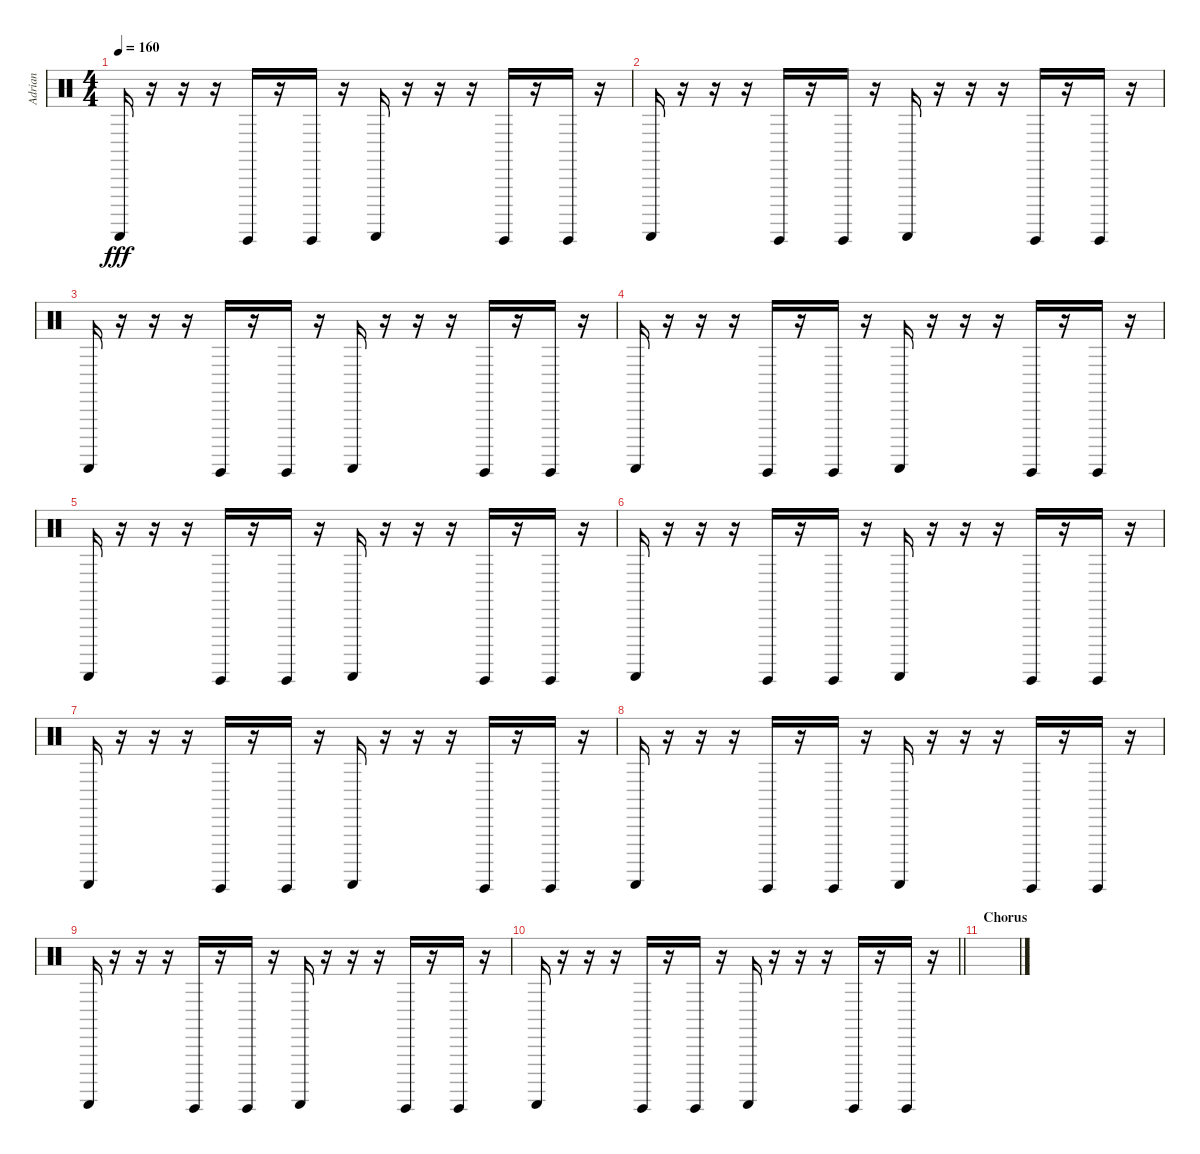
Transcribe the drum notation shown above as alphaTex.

\track ("Adrian" "Adrian") {instrument percussion}
\staff {score}
\articulation defaults
\ts (4 4)
\tempo 160
\clef neutral
\ks c "Guiro (scrap-return)".16{dy fff}
r.16 r.16 r.16 "Guiro (hit)".16 r.16 "Guiro (hit)".16 r.16 "Guiro (scrap-return)".16 r.16 r.16 r.16 "Guiro (hit)".16 r.16 "Guiro (hit)".16 r.16 |
"Guiro (scrap-return)".16 r.16 r.16 r.16 "Guiro (hit)".16 r.16 "Guiro (hit)".16 r.16 "Guiro (scrap-return)".16 r.16 r.16 r.16 "Guiro (hit)".16 r.16 "Guiro (hit)".16 r.16 |
"Guiro (scrap-return)".16 r.16 r.16 r.16 "Guiro (hit)".16 r.16 "Guiro (hit)".16 r.16 "Guiro (scrap-return)".16 r.16 r.16 r.16 "Guiro (hit)".16 r.16 "Guiro (hit)".16 r.16 |
"Guiro (scrap-return)".16 r.16 r.16 r.16 "Guiro (hit)".16 r.16 "Guiro (hit)".16 r.16 "Guiro (scrap-return)".16 r.16 r.16 r.16 "Guiro (hit)".16 r.16 "Guiro (hit)".16 r.16 |
"Guiro (scrap-return)".16 r.16 r.16 r.16 "Guiro (hit)".16 r.16 "Guiro (hit)".16 r.16 "Guiro (scrap-return)".16 r.16 r.16 r.16 "Guiro (hit)".16 r.16 "Guiro (hit)".16 r.16 |
"Guiro (scrap-return)".16 r.16 r.16 r.16 "Guiro (hit)".16 r.16 "Guiro (hit)".16 r.16 "Guiro (scrap-return)".16 r.16 r.16 r.16 "Guiro (hit)".16 r.16 "Guiro (hit)".16 r.16 |
"Guiro (scrap-return)".16 r.16 r.16 r.16 "Guiro (hit)".16 r.16 "Guiro (hit)".16 r.16 "Guiro (scrap-return)".16 r.16 r.16 r.16 "Guiro (hit)".16 r.16 "Guiro (hit)".16 r.16 |
"Guiro (scrap-return)".16 r.16 r.16 r.16 "Guiro (hit)".16 r.16 "Guiro (hit)".16 r.16 "Guiro (scrap-return)".16 r.16 r.16 r.16 "Guiro (hit)".16 r.16 "Guiro (hit)".16 r.16 |
"Guiro (scrap-return)".16 r.16 r.16 r.16 "Guiro (hit)".16 r.16 "Guiro (hit)".16 r.16 "Guiro (scrap-return)".16 r.16 r.16 r.16 "Guiro (hit)".16 r.16 "Guiro (hit)".16 r.16 |
\barLineRight lightlight "Guiro (scrap-return)".16
r.16 r.16 r.16 "Guiro (hit)".16 r.16 "Guiro (hit)".16 r.16 "Guiro (scrap-return)".16 r.16 r.16 r.16 "Guiro (hit)".16 r.16 "Guiro (hit)".16 r.16 |
\section ("" "Chorus")
